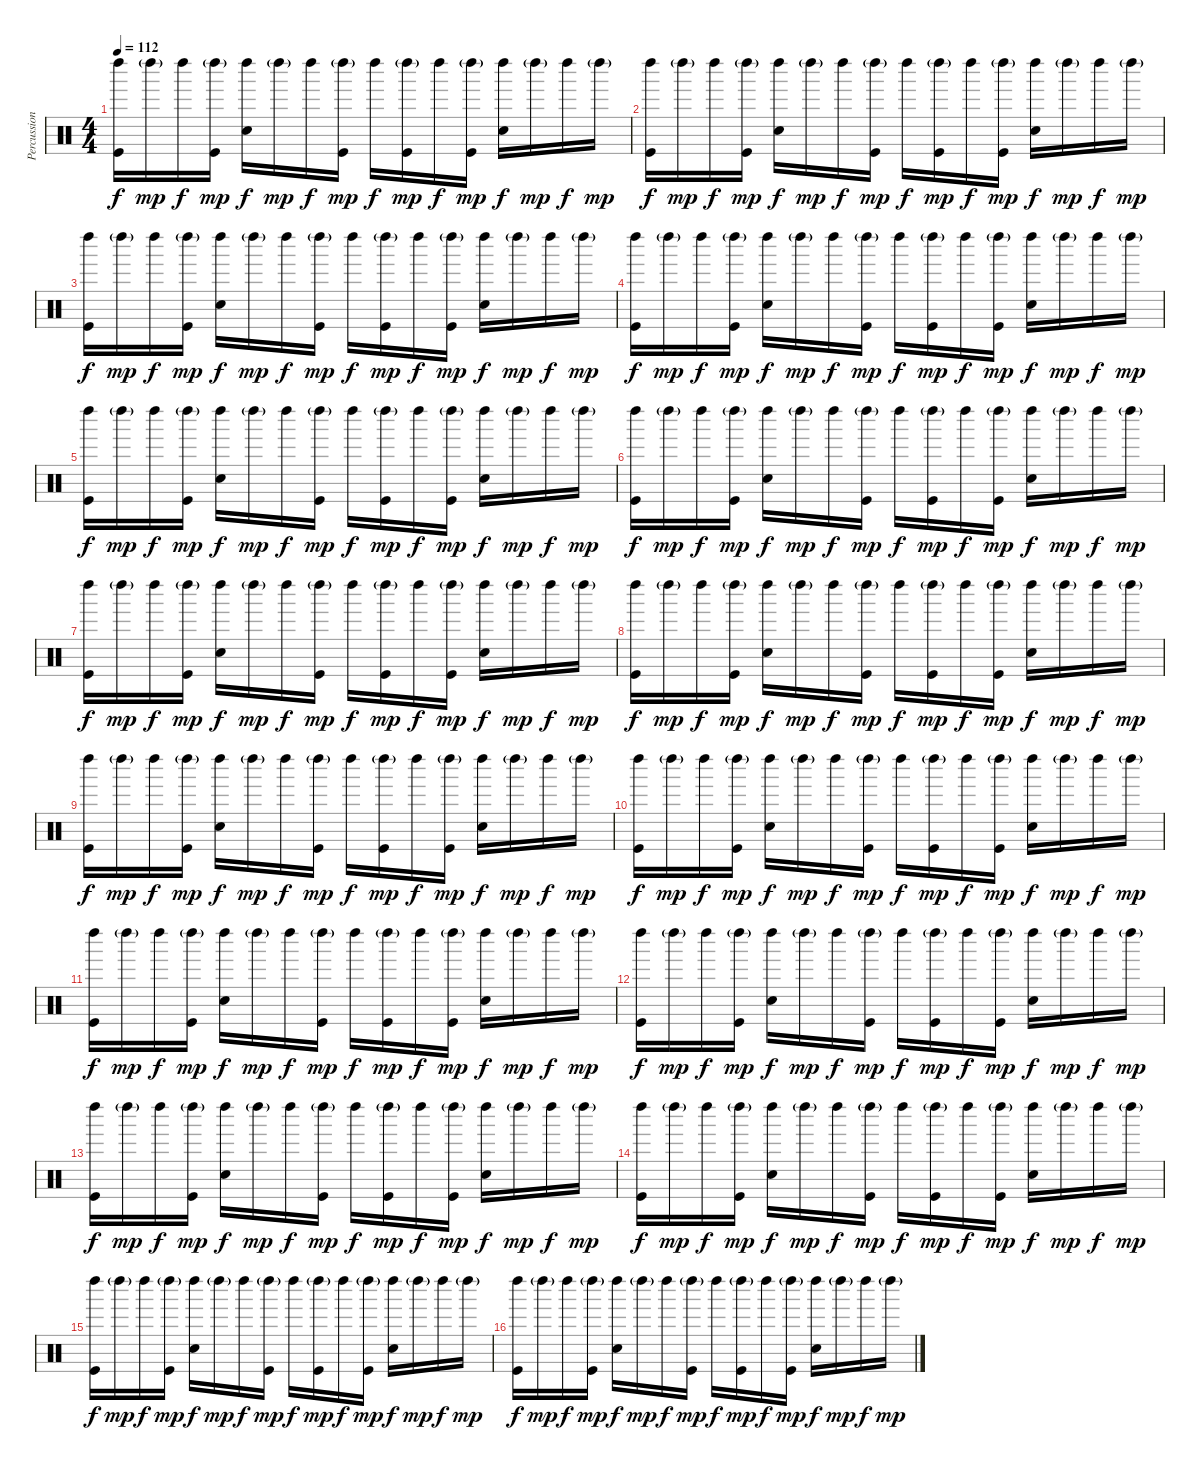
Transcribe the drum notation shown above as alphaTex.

\track ("Percussion" "Percussion") {instrument percussion}
\staff {score}
\articulation defaults
\ts (4 4)
\tempo 112
\clef neutral
\ks c
("Left Maraca (hit)" "Kick (hit)").16{dy f} "Left Maraca (hit)"{g}.16{dy mp} "Left Maraca (hit)".16{dy f} ("Left Maraca (hit)"{g} "Kick (hit)").16{dy mp} ("Left Maraca (hit)" "Snare (hit) 2").16{dy f} "Left Maraca (hit)"{g}.16{dy mp} "Left Maraca (hit)".16{dy f} ("Left Maraca (hit)"{g} "Kick (hit)").16{dy mp} "Left Maraca (hit)".16{dy f} ("Left Maraca (hit)"{g} "Kick (hit)").16{dy mp} "Left Maraca (hit)".16{dy f} ("Left Maraca (hit)"{g} "Kick (hit)").16{dy mp} ("Left Maraca (hit)" "Snare (hit) 2").16{dy f} "Left Maraca (hit)"{g}.16{dy mp} "Left Maraca (hit)".16{dy f} "Left Maraca (hit)"{g}.16{dy mp} |
("Left Maraca (hit)" "Kick (hit)").16{dy f} "Left Maraca (hit)"{g}.16{dy mp} "Left Maraca (hit)".16{dy f} ("Left Maraca (hit)"{g} "Kick (hit)").16{dy mp} ("Left Maraca (hit)" "Snare (hit) 2").16{dy f} "Left Maraca (hit)"{g}.16{dy mp} "Left Maraca (hit)".16{dy f} ("Left Maraca (hit)"{g} "Kick (hit)").16{dy mp} "Left Maraca (hit)".16{dy f} ("Left Maraca (hit)"{g} "Kick (hit)").16{dy mp} "Left Maraca (hit)".16{dy f} ("Left Maraca (hit)"{g} "Kick (hit)").16{dy mp} ("Left Maraca (hit)" "Snare (hit) 2").16{dy f} "Left Maraca (hit)"{g}.16{dy mp} "Left Maraca (hit)".16{dy f} "Left Maraca (hit)"{g}.16{dy mp} |
("Left Maraca (hit)" "Kick (hit)").16{dy f} "Left Maraca (hit)"{g}.16{dy mp} "Left Maraca (hit)".16{dy f} ("Left Maraca (hit)"{g} "Kick (hit)").16{dy mp} ("Left Maraca (hit)" "Snare (hit) 2").16{dy f} "Left Maraca (hit)"{g}.16{dy mp} "Left Maraca (hit)".16{dy f} ("Left Maraca (hit)"{g} "Kick (hit)").16{dy mp} "Left Maraca (hit)".16{dy f} ("Left Maraca (hit)"{g} "Kick (hit)").16{dy mp} "Left Maraca (hit)".16{dy f} ("Left Maraca (hit)"{g} "Kick (hit)").16{dy mp} ("Left Maraca (hit)" "Snare (hit) 2").16{dy f} "Left Maraca (hit)"{g}.16{dy mp} "Left Maraca (hit)".16{dy f} "Left Maraca (hit)"{g}.16{dy mp} |
("Left Maraca (hit)" "Kick (hit)").16{dy f} "Left Maraca (hit)"{g}.16{dy mp} "Left Maraca (hit)".16{dy f} ("Left Maraca (hit)"{g} "Kick (hit)").16{dy mp} ("Left Maraca (hit)" "Snare (hit) 2").16{dy f} "Left Maraca (hit)"{g}.16{dy mp} "Left Maraca (hit)".16{dy f} ("Left Maraca (hit)"{g} "Kick (hit)").16{dy mp} "Left Maraca (hit)".16{dy f} ("Left Maraca (hit)"{g} "Kick (hit)").16{dy mp} "Left Maraca (hit)".16{dy f} ("Left Maraca (hit)"{g} "Kick (hit)").16{dy mp} ("Left Maraca (hit)" "Snare (hit) 2").16{dy f} "Left Maraca (hit)"{g}.16{dy mp} "Left Maraca (hit)".16{dy f} "Left Maraca (hit)"{g}.16{dy mp} |
("Left Maraca (hit)" "Kick (hit)").16{dy f} "Left Maraca (hit)"{g}.16{dy mp} "Left Maraca (hit)".16{dy f} ("Left Maraca (hit)"{g} "Kick (hit)").16{dy mp} ("Left Maraca (hit)" "Snare (hit) 2").16{dy f} "Left Maraca (hit)"{g}.16{dy mp} "Left Maraca (hit)".16{dy f} ("Left Maraca (hit)"{g} "Kick (hit)").16{dy mp} "Left Maraca (hit)".16{dy f} ("Left Maraca (hit)"{g} "Kick (hit)").16{dy mp} "Left Maraca (hit)".16{dy f} ("Left Maraca (hit)"{g} "Kick (hit)").16{dy mp} ("Left Maraca (hit)" "Snare (hit) 2").16{dy f} "Left Maraca (hit)"{g}.16{dy mp} "Left Maraca (hit)".16{dy f} "Left Maraca (hit)"{g}.16{dy mp} |
("Left Maraca (hit)" "Kick (hit)").16{dy f} "Left Maraca (hit)"{g}.16{dy mp} "Left Maraca (hit)".16{dy f} ("Left Maraca (hit)"{g} "Kick (hit)").16{dy mp} ("Left Maraca (hit)" "Snare (hit) 2").16{dy f} "Left Maraca (hit)"{g}.16{dy mp} "Left Maraca (hit)".16{dy f} ("Left Maraca (hit)"{g} "Kick (hit)").16{dy mp} "Left Maraca (hit)".16{dy f} ("Left Maraca (hit)"{g} "Kick (hit)").16{dy mp} "Left Maraca (hit)".16{dy f} ("Left Maraca (hit)"{g} "Kick (hit)").16{dy mp} ("Left Maraca (hit)" "Snare (hit) 2").16{dy f} "Left Maraca (hit)"{g}.16{dy mp} "Left Maraca (hit)".16{dy f} "Left Maraca (hit)"{g}.16{dy mp} |
("Left Maraca (hit)" "Kick (hit)").16{dy f} "Left Maraca (hit)"{g}.16{dy mp} "Left Maraca (hit)".16{dy f} ("Left Maraca (hit)"{g} "Kick (hit)").16{dy mp} ("Left Maraca (hit)" "Snare (hit) 2").16{dy f} "Left Maraca (hit)"{g}.16{dy mp} "Left Maraca (hit)".16{dy f} ("Left Maraca (hit)"{g} "Kick (hit)").16{dy mp} "Left Maraca (hit)".16{dy f} ("Left Maraca (hit)"{g} "Kick (hit)").16{dy mp} "Left Maraca (hit)".16{dy f} ("Left Maraca (hit)"{g} "Kick (hit)").16{dy mp} ("Left Maraca (hit)" "Snare (hit) 2").16{dy f} "Left Maraca (hit)"{g}.16{dy mp} "Left Maraca (hit)".16{dy f} "Left Maraca (hit)"{g}.16{dy mp} |
("Left Maraca (hit)" "Kick (hit)").16{dy f} "Left Maraca (hit)"{g}.16{dy mp} "Left Maraca (hit)".16{dy f} ("Left Maraca (hit)"{g} "Kick (hit)").16{dy mp} ("Left Maraca (hit)" "Snare (hit) 2").16{dy f} "Left Maraca (hit)"{g}.16{dy mp} "Left Maraca (hit)".16{dy f} ("Left Maraca (hit)"{g} "Kick (hit)").16{dy mp} "Left Maraca (hit)".16{dy f} ("Left Maraca (hit)"{g} "Kick (hit)").16{dy mp} "Left Maraca (hit)".16{dy f} ("Left Maraca (hit)"{g} "Kick (hit)").16{dy mp} ("Left Maraca (hit)" "Snare (hit) 2").16{dy f} "Left Maraca (hit)"{g}.16{dy mp} "Left Maraca (hit)".16{dy f} "Left Maraca (hit)"{g}.16{dy mp} |
("Left Maraca (hit)" "Kick (hit)").16{dy f} "Left Maraca (hit)"{g}.16{dy mp} "Left Maraca (hit)".16{dy f} ("Left Maraca (hit)"{g} "Kick (hit)").16{dy mp} ("Left Maraca (hit)" "Snare (hit) 2").16{dy f} "Left Maraca (hit)"{g}.16{dy mp} "Left Maraca (hit)".16{dy f} ("Left Maraca (hit)"{g} "Kick (hit)").16{dy mp} "Left Maraca (hit)".16{dy f} ("Left Maraca (hit)"{g} "Kick (hit)").16{dy mp} "Left Maraca (hit)".16{dy f} ("Left Maraca (hit)"{g} "Kick (hit)").16{dy mp} ("Left Maraca (hit)" "Snare (hit) 2").16{dy f} "Left Maraca (hit)"{g}.16{dy mp} "Left Maraca (hit)".16{dy f} "Left Maraca (hit)"{g}.16{dy mp} |
("Left Maraca (hit)" "Kick (hit)").16{dy f} "Left Maraca (hit)"{g}.16{dy mp} "Left Maraca (hit)".16{dy f} ("Left Maraca (hit)"{g} "Kick (hit)").16{dy mp} ("Left Maraca (hit)" "Snare (hit) 2").16{dy f} "Left Maraca (hit)"{g}.16{dy mp} "Left Maraca (hit)".16{dy f} ("Left Maraca (hit)"{g} "Kick (hit)").16{dy mp} "Left Maraca (hit)".16{dy f} ("Left Maraca (hit)"{g} "Kick (hit)").16{dy mp} "Left Maraca (hit)".16{dy f} ("Left Maraca (hit)"{g} "Kick (hit)").16{dy mp} ("Left Maraca (hit)" "Snare (hit) 2").16{dy f} "Left Maraca (hit)"{g}.16{dy mp} "Left Maraca (hit)".16{dy f} "Left Maraca (hit)"{g}.16{dy mp} |
("Left Maraca (hit)" "Kick (hit)").16{dy f} "Left Maraca (hit)"{g}.16{dy mp} "Left Maraca (hit)".16{dy f} ("Left Maraca (hit)"{g} "Kick (hit)").16{dy mp} ("Left Maraca (hit)" "Snare (hit) 2").16{dy f} "Left Maraca (hit)"{g}.16{dy mp} "Left Maraca (hit)".16{dy f} ("Left Maraca (hit)"{g} "Kick (hit)").16{dy mp} "Left Maraca (hit)".16{dy f} ("Left Maraca (hit)"{g} "Kick (hit)").16{dy mp} "Left Maraca (hit)".16{dy f} ("Left Maraca (hit)"{g} "Kick (hit)").16{dy mp} ("Left Maraca (hit)" "Snare (hit) 2").16{dy f} "Left Maraca (hit)"{g}.16{dy mp} "Left Maraca (hit)".16{dy f} "Left Maraca (hit)"{g}.16{dy mp} |
("Left Maraca (hit)" "Kick (hit)").16{dy f} "Left Maraca (hit)"{g}.16{dy mp} "Left Maraca (hit)".16{dy f} ("Left Maraca (hit)"{g} "Kick (hit)").16{dy mp} ("Left Maraca (hit)" "Snare (hit) 2").16{dy f} "Left Maraca (hit)"{g}.16{dy mp} "Left Maraca (hit)".16{dy f} ("Left Maraca (hit)"{g} "Kick (hit)").16{dy mp} "Left Maraca (hit)".16{dy f} ("Left Maraca (hit)"{g} "Kick (hit)").16{dy mp} "Left Maraca (hit)".16{dy f} ("Left Maraca (hit)"{g} "Kick (hit)").16{dy mp} ("Left Maraca (hit)" "Snare (hit) 2").16{dy f} "Left Maraca (hit)"{g}.16{dy mp} "Left Maraca (hit)".16{dy f} "Left Maraca (hit)"{g}.16{dy mp} |
("Left Maraca (hit)" "Kick (hit)").16{dy f} "Left Maraca (hit)"{g}.16{dy mp} "Left Maraca (hit)".16{dy f} ("Left Maraca (hit)"{g} "Kick (hit)").16{dy mp} ("Left Maraca (hit)" "Snare (hit) 2").16{dy f} "Left Maraca (hit)"{g}.16{dy mp} "Left Maraca (hit)".16{dy f} ("Left Maraca (hit)"{g} "Kick (hit)").16{dy mp} "Left Maraca (hit)".16{dy f} ("Left Maraca (hit)"{g} "Kick (hit)").16{dy mp} "Left Maraca (hit)".16{dy f} ("Left Maraca (hit)"{g} "Kick (hit)").16{dy mp} ("Left Maraca (hit)" "Snare (hit) 2").16{dy f} "Left Maraca (hit)"{g}.16{dy mp} "Left Maraca (hit)".16{dy f} "Left Maraca (hit)"{g}.16{dy mp} |
("Left Maraca (hit)" "Kick (hit)").16{dy f} "Left Maraca (hit)"{g}.16{dy mp} "Left Maraca (hit)".16{dy f} ("Left Maraca (hit)"{g} "Kick (hit)").16{dy mp} ("Left Maraca (hit)" "Snare (hit) 2").16{dy f} "Left Maraca (hit)"{g}.16{dy mp} "Left Maraca (hit)".16{dy f} ("Left Maraca (hit)"{g} "Kick (hit)").16{dy mp} "Left Maraca (hit)".16{dy f} ("Left Maraca (hit)"{g} "Kick (hit)").16{dy mp} "Left Maraca (hit)".16{dy f} ("Left Maraca (hit)"{g} "Kick (hit)").16{dy mp} ("Left Maraca (hit)" "Snare (hit) 2").16{dy f} "Left Maraca (hit)"{g}.16{dy mp} "Left Maraca (hit)".16{dy f} "Left Maraca (hit)"{g}.16{dy mp} |
("Left Maraca (hit)" "Kick (hit)").16{dy f} "Left Maraca (hit)"{g}.16{dy mp} "Left Maraca (hit)".16{dy f} ("Left Maraca (hit)"{g} "Kick (hit)").16{dy mp} ("Left Maraca (hit)" "Snare (hit) 2").16{dy f} "Left Maraca (hit)"{g}.16{dy mp} "Left Maraca (hit)".16{dy f} ("Left Maraca (hit)"{g} "Kick (hit)").16{dy mp} "Left Maraca (hit)".16{dy f} ("Left Maraca (hit)"{g} "Kick (hit)").16{dy mp} "Left Maraca (hit)".16{dy f} ("Left Maraca (hit)"{g} "Kick (hit)").16{dy mp} ("Left Maraca (hit)" "Snare (hit) 2").16{dy f} "Left Maraca (hit)"{g}.16{dy mp} "Left Maraca (hit)".16{dy f} "Left Maraca (hit)"{g}.16{dy mp} |
("Left Maraca (hit)" "Kick (hit)").16{dy f} "Left Maraca (hit)"{g}.16{dy mp} "Left Maraca (hit)".16{dy f} ("Left Maraca (hit)"{g} "Kick (hit)").16{dy mp} ("Left Maraca (hit)" "Snare (hit) 2").16{dy f} "Left Maraca (hit)"{g}.16{dy mp} "Left Maraca (hit)".16{dy f} ("Left Maraca (hit)"{g} "Kick (hit)").16{dy mp} "Left Maraca (hit)".16{dy f} ("Left Maraca (hit)"{g} "Kick (hit)").16{dy mp} "Left Maraca (hit)".16{dy f} ("Left Maraca (hit)"{g} "Kick (hit)").16{dy mp} ("Left Maraca (hit)" "Snare (hit) 2").16{dy f} "Left Maraca (hit)"{g}.16{dy mp} "Left Maraca (hit)".16{dy f} "Left Maraca (hit)"{g}.16{dy mp}
